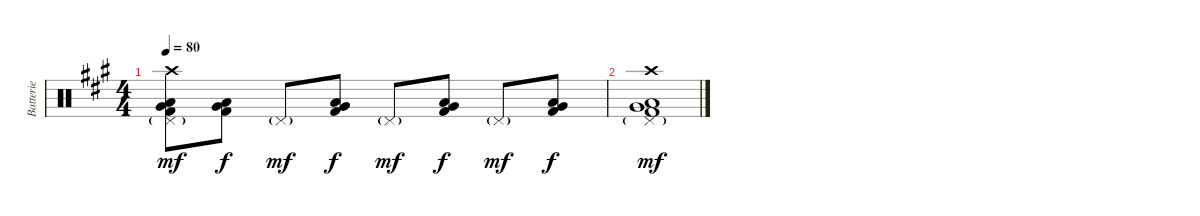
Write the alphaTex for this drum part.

\track ("Batterie" "Batterie") {instrument percussion}
\staff {score}
\articulation defaults
\ts (4 4)
\tempo 80
\clef neutral
\ks a
("Crash high (hit)" "Pedal Hi-Hat (hit)"{g} "Low Floor Tom (hit)" "Very Low Tom (hit)" "Kick (hit) 2").8{dy mf} ("Low Floor Tom (hit)" "Very Low Tom (hit)" "Kick (hit) 2").8{dy f} "Pedal Hi-Hat (hit)"{g}.8{dy mf} ("Low Floor Tom (hit)" "Very Low Tom (hit)" "Kick (hit) 2").8{dy f} "Pedal Hi-Hat (hit)"{g}.8{dy mf} ("Low Floor Tom (hit)" "Very Low Tom (hit)" "Kick (hit) 2").8{dy f} "Pedal Hi-Hat (hit)"{g}.8{dy mf} ("Low Floor Tom (hit)" "Very Low Tom (hit)" "Kick (hit) 2").8{dy f} |
("Crash high (hit)" "Pedal Hi-Hat (hit)"{g} "Low Floor Tom (hit)" "Very Low Tom (hit)" "Kick (hit) 2").1{dy mf}
